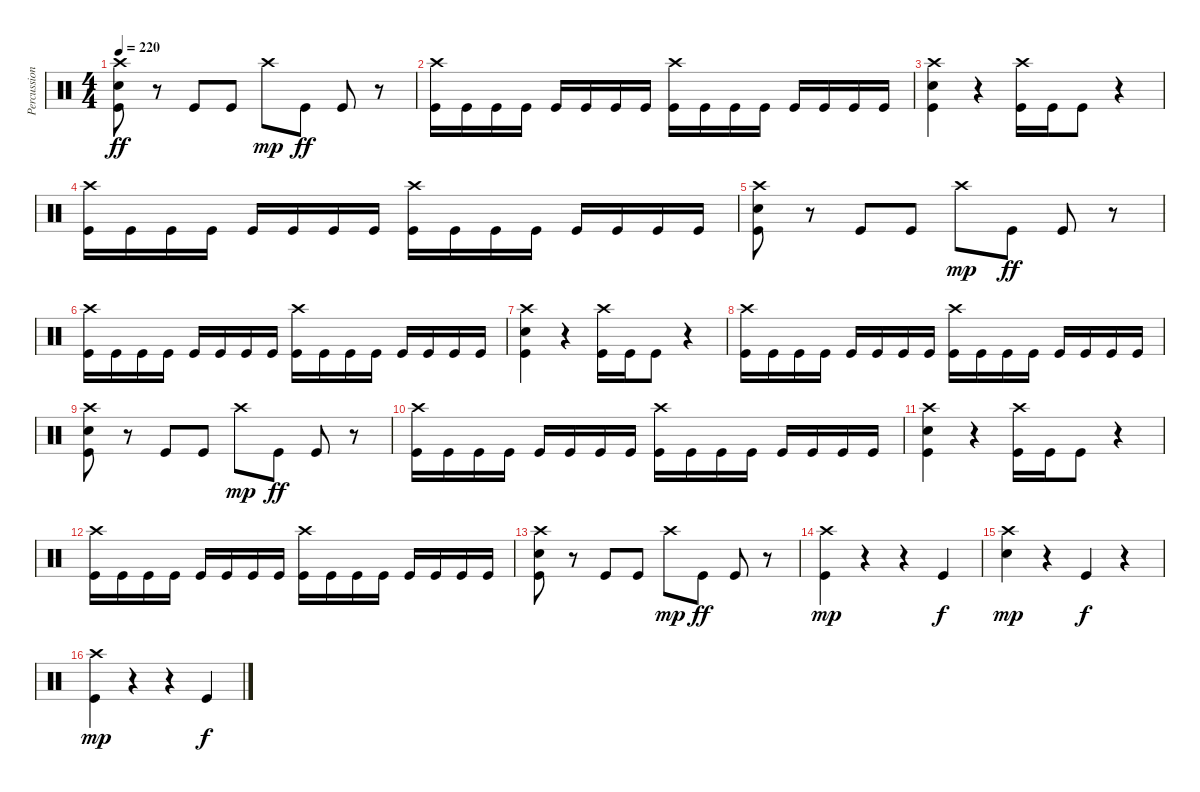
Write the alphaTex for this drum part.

\track ("Percussion" "Percussion") {instrument percussion}
\staff {score}
\articulation defaults
\ts (4 4)
\tempo 220
\clef neutral
\ks c
("Crash high (hit)" "Electric Snare (hit)" "Kick (hit)").8{dy ff} r.8 "Kick (hit)".8 "Kick (hit)".8 "Crash high (hit)".8{dy mp} "Kick (hit)".8{dy ff} "Kick (hit)".8 r.8 |
("Crash high (hit)" "Kick (hit)").16 "Kick (hit)".16 "Kick (hit)".16 "Kick (hit)".16 "Kick (hit)".16 "Kick (hit)".16 "Kick (hit)".16 "Kick (hit)".16 ("Crash high (hit)" "Kick (hit)").16 "Kick (hit)".16 "Kick (hit)".16 "Kick (hit)".16 "Kick (hit)".16 "Kick (hit)".16 "Kick (hit)".16 "Kick (hit)".16 |
("Crash high (hit)" "Electric Snare (hit)" "Kick (hit)").4 r.4 ("Crash high (hit)" "Kick (hit)").16 "Kick (hit)".16 "Kick (hit)".8 r.4 |
("Crash high (hit)" "Kick (hit)").16 "Kick (hit)".16 "Kick (hit)".16 "Kick (hit)".16 "Kick (hit)".16 "Kick (hit)".16 "Kick (hit)".16 "Kick (hit)".16 ("Crash high (hit)" "Kick (hit)").16 "Kick (hit)".16 "Kick (hit)".16 "Kick (hit)".16 "Kick (hit)".16 "Kick (hit)".16 "Kick (hit)".16 "Kick (hit)".16 |
("Crash high (hit)" "Electric Snare (hit)" "Kick (hit)").8 r.8 "Kick (hit)".8 "Kick (hit)".8 "Crash high (hit)".8{dy mp} "Kick (hit)".8{dy ff} "Kick (hit)".8 r.8 |
("Crash high (hit)" "Kick (hit)").16 "Kick (hit)".16 "Kick (hit)".16 "Kick (hit)".16 "Kick (hit)".16 "Kick (hit)".16 "Kick (hit)".16 "Kick (hit)".16 ("Crash high (hit)" "Kick (hit)").16 "Kick (hit)".16 "Kick (hit)".16 "Kick (hit)".16 "Kick (hit)".16 "Kick (hit)".16 "Kick (hit)".16 "Kick (hit)".16 |
("Crash high (hit)" "Electric Snare (hit)" "Kick (hit)").4 r.4 ("Crash high (hit)" "Kick (hit)").16 "Kick (hit)".16 "Kick (hit)".8 r.4 |
("Crash high (hit)" "Kick (hit)").16 "Kick (hit)".16 "Kick (hit)".16 "Kick (hit)".16 "Kick (hit)".16 "Kick (hit)".16 "Kick (hit)".16 "Kick (hit)".16 ("Crash high (hit)" "Kick (hit)").16 "Kick (hit)".16 "Kick (hit)".16 "Kick (hit)".16 "Kick (hit)".16 "Kick (hit)".16 "Kick (hit)".16 "Kick (hit)".16 |
("Crash high (hit)" "Electric Snare (hit)" "Kick (hit)").8 r.8 "Kick (hit)".8 "Kick (hit)".8 "Crash high (hit)".8{dy mp} "Kick (hit)".8{dy ff} "Kick (hit)".8 r.8 |
("Crash high (hit)" "Kick (hit)").16 "Kick (hit)".16 "Kick (hit)".16 "Kick (hit)".16 "Kick (hit)".16 "Kick (hit)".16 "Kick (hit)".16 "Kick (hit)".16 ("Crash high (hit)" "Kick (hit)").16 "Kick (hit)".16 "Kick (hit)".16 "Kick (hit)".16 "Kick (hit)".16 "Kick (hit)".16 "Kick (hit)".16 "Kick (hit)".16 |
("Crash high (hit)" "Electric Snare (hit)" "Kick (hit)").4 r.4 ("Crash high (hit)" "Kick (hit)").16 "Kick (hit)".16 "Kick (hit)".8 r.4 |
("Crash high (hit)" "Kick (hit)").16 "Kick (hit)".16 "Kick (hit)".16 "Kick (hit)".16 "Kick (hit)".16 "Kick (hit)".16 "Kick (hit)".16 "Kick (hit)".16 ("Crash high (hit)" "Kick (hit)").16 "Kick (hit)".16 "Kick (hit)".16 "Kick (hit)".16 "Kick (hit)".16 "Kick (hit)".16 "Kick (hit)".16 "Kick (hit)".16 |
("Crash high (hit)" "Electric Snare (hit)" "Kick (hit)").8 r.8 "Kick (hit)".8 "Kick (hit)".8 "Crash high (hit)".8{dy mp} "Kick (hit)".8{dy ff} "Kick (hit)".8 r.8 |
("Crash high (hit)" "Kick (hit)").4{dy mp} r.4 r.4 "Kick (hit)".4{dy f} |
("Crash high (hit)" "Electric Snare (hit)").4{dy mp} r.4 "Kick (hit)".4{dy f} r.4 |
("Crash high (hit)" "Kick (hit)").4{dy mp} r.4 r.4 "Kick (hit)".4{dy f}
